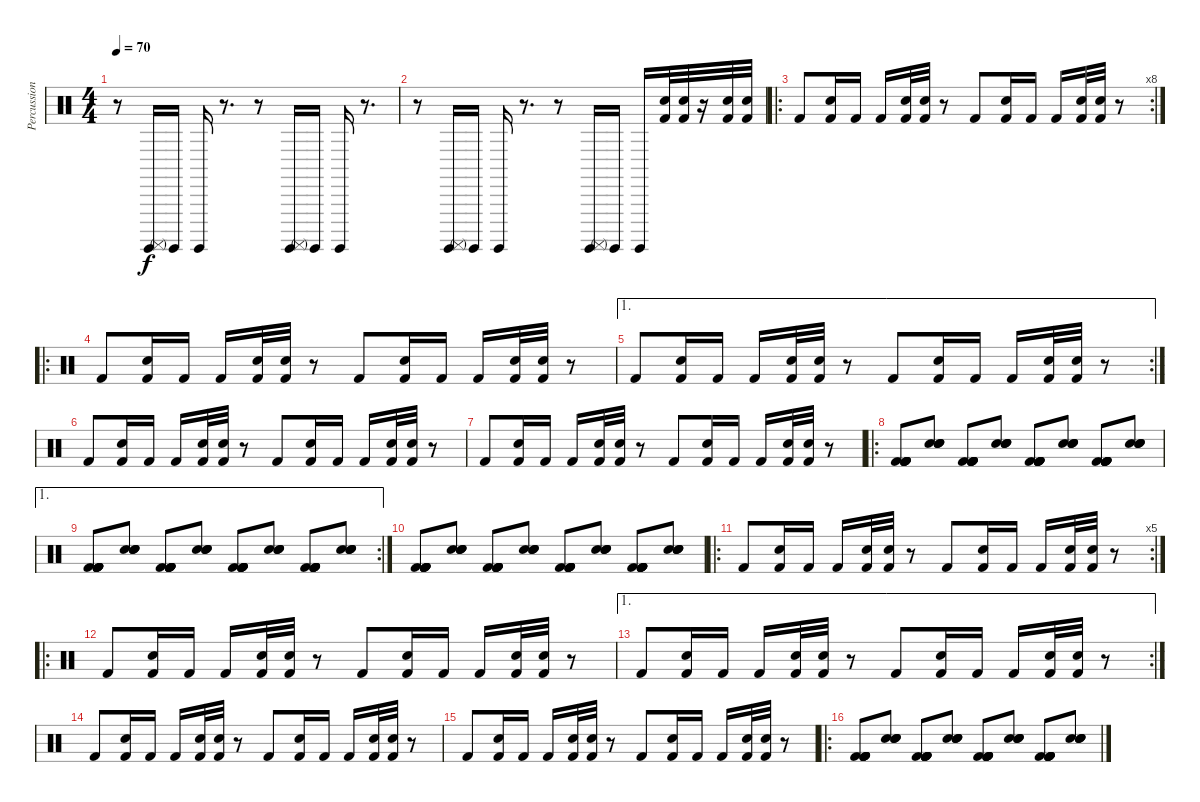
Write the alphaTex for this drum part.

\track ("Percussions" "Percussion") {instrument percussion}
\staff {score}
\articulation defaults
\ts (4 4)
\tempo 70
\clef neutral
\ks c
r.8{dy f} ("Surdo (hit)" "Surdo (mute)").16 "Surdo (hit)".16 "Surdo (hit)".16 r.8{d} r.8 ("Surdo (hit)" "Surdo (mute)").16 "Surdo (hit)".16 "Surdo (hit)".16 r.8{d} |
r.8 ("Surdo (hit)" "Surdo (mute)").16 "Surdo (hit)".16 "Surdo (hit)".16 r.8{d} r.8 ("Surdo (hit)" "Surdo (mute)").16 "Surdo (hit)".16 "Surdo (hit)".16 ("Kick (hit) 2" "Electric Snare (hit)").32 ("Kick (hit) 2" "Electric Snare (hit)").32 r.16 ("Kick (hit) 2" "Electric Snare (hit)").32 ("Kick (hit) 2" "Electric Snare (hit)").32 |
\ro
\rc 8 "Kick (hit) 2".8
("Kick (hit) 2" "Electric Snare (hit)").16 "Kick (hit) 2".16 "Kick (hit) 2".16 ("Kick (hit) 2" "Electric Snare (hit)").32 ("Kick (hit) 2" "Electric Snare (hit)").32 r.8 "Kick (hit) 2".8 ("Kick (hit) 2" "Electric Snare (hit)").16 "Kick (hit) 2".16 "Kick (hit) 2".16 ("Kick (hit) 2" "Electric Snare (hit)").32 ("Kick (hit) 2" "Electric Snare (hit)").32 r.8 |
\ro "Kick (hit) 2".8
("Kick (hit) 2" "Electric Snare (hit)").16 "Kick (hit) 2".16 "Kick (hit) 2".16 ("Kick (hit) 2" "Electric Snare (hit)").32 ("Kick (hit) 2" "Electric Snare (hit)").32 r.8 "Kick (hit) 2".8 ("Kick (hit) 2" "Electric Snare (hit)").16 "Kick (hit) 2".16 "Kick (hit) 2".16 ("Kick (hit) 2" "Electric Snare (hit)").32 ("Kick (hit) 2" "Electric Snare (hit)").32 r.8 |
\ae 1
\rc 2 "Kick (hit) 2".8
("Kick (hit) 2" "Electric Snare (hit)").16 "Kick (hit) 2".16 "Kick (hit) 2".16 ("Kick (hit) 2" "Electric Snare (hit)").32 ("Kick (hit) 2" "Electric Snare (hit)").32 r.8 "Kick (hit) 2".8 ("Kick (hit) 2" "Electric Snare (hit)").16 "Kick (hit) 2".16 "Kick (hit) 2".16 ("Kick (hit) 2" "Electric Snare (hit)").32 ("Kick (hit) 2" "Electric Snare (hit)").32 r.8 |
"Kick (hit) 2".8 ("Kick (hit) 2" "Electric Snare (hit)").16 "Kick (hit) 2".16 "Kick (hit) 2".16 ("Kick (hit) 2" "Electric Snare (hit)").32 ("Kick (hit) 2" "Electric Snare (hit)").32 r.8 "Kick (hit) 2".8 ("Kick (hit) 2" "Electric Snare (hit)").16 "Kick (hit) 2".16 "Kick (hit) 2".16 ("Kick (hit) 2" "Electric Snare (hit)").32 ("Kick (hit) 2" "Electric Snare (hit)").32 r.8 |
"Kick (hit) 2".8 ("Kick (hit) 2" "Electric Snare (hit)").16 "Kick (hit) 2".16 "Kick (hit) 2".16 ("Kick (hit) 2" "Electric Snare (hit)").32 ("Kick (hit) 2" "Electric Snare (hit)").32 r.8 "Kick (hit) 2".8 ("Kick (hit) 2" "Electric Snare (hit)").16 "Kick (hit) 2".16 "Kick (hit) 2".16 ("Kick (hit) 2" "Electric Snare (hit)").32 ("Kick (hit) 2" "Electric Snare (hit)").32 r.8 |
\ro
("Kick (hit) 2" "Kick (hit) 2" "Kick (hit) 2" "Kick (hit) 2" "Kick (hit) 2" "Kick (hit) 2").8 ("Electric Snare (hit)" "Electric Snare (hit)" "Electric Snare (hit)" "Electric Snare (hit)").8 ("Kick (hit) 2" "Kick (hit) 2" "Kick (hit) 2" "Kick (hit) 2" "Kick (hit) 2" "Kick (hit) 2").8 ("Electric Snare (hit)" "Electric Snare (hit)" "Electric Snare (hit)" "Electric Snare (hit)").8 ("Kick (hit) 2" "Kick (hit) 2" "Kick (hit) 2" "Kick (hit) 2" "Kick (hit) 2" "Kick (hit) 2").8 ("Electric Snare (hit)" "Electric Snare (hit)" "Electric Snare (hit)" "Electric Snare (hit)").8 ("Kick (hit) 2" "Kick (hit) 2" "Kick (hit) 2" "Kick (hit) 2" "Kick (hit) 2" "Kick (hit) 2").8 ("Electric Snare (hit)" "Electric Snare (hit)" "Electric Snare (hit)" "Electric Snare (hit)").8 |
\ae 1
\rc 2
("Kick (hit) 2" "Kick (hit) 2" "Kick (hit) 2" "Kick (hit) 2" "Kick (hit) 2" "Kick (hit) 2").8 ("Electric Snare (hit)" "Electric Snare (hit)" "Electric Snare (hit)" "Electric Snare (hit)").8 ("Kick (hit) 2" "Kick (hit) 2" "Kick (hit) 2" "Kick (hit) 2" "Kick (hit) 2" "Kick (hit) 2").8 ("Electric Snare (hit)" "Electric Snare (hit)" "Electric Snare (hit)" "Electric Snare (hit)").8 ("Kick (hit) 2" "Kick (hit) 2" "Kick (hit) 2" "Kick (hit) 2" "Kick (hit) 2" "Kick (hit) 2").8 ("Electric Snare (hit)" "Electric Snare (hit)" "Electric Snare (hit)" "Electric Snare (hit)").8 ("Kick (hit) 2" "Kick (hit) 2" "Kick (hit) 2" "Kick (hit) 2" "Kick (hit) 2" "Kick (hit) 2").8 ("Electric Snare (hit)" "Electric Snare (hit)" "Electric Snare (hit)" "Electric Snare (hit)").8 |
("Kick (hit) 2" "Kick (hit) 2" "Kick (hit) 2" "Kick (hit) 2" "Kick (hit) 2" "Kick (hit) 2").8 ("Electric Snare (hit)" "Electric Snare (hit)" "Electric Snare (hit)" "Electric Snare (hit)").8 ("Kick (hit) 2" "Kick (hit) 2" "Kick (hit) 2" "Kick (hit) 2" "Kick (hit) 2" "Kick (hit) 2").8 ("Electric Snare (hit)" "Electric Snare (hit)" "Electric Snare (hit)" "Electric Snare (hit)").8 ("Kick (hit) 2" "Kick (hit) 2" "Kick (hit) 2" "Kick (hit) 2" "Kick (hit) 2" "Kick (hit) 2").8 ("Electric Snare (hit)" "Electric Snare (hit)" "Electric Snare (hit)" "Electric Snare (hit)").8 ("Kick (hit) 2" "Kick (hit) 2" "Kick (hit) 2" "Kick (hit) 2" "Kick (hit) 2" "Kick (hit) 2").8 ("Electric Snare (hit)" "Electric Snare (hit)" "Electric Snare (hit)" "Electric Snare (hit)").8 |
\ro
\rc 5 "Kick (hit) 2".8
("Kick (hit) 2" "Electric Snare (hit)").16 "Kick (hit) 2".16 "Kick (hit) 2".16 ("Kick (hit) 2" "Electric Snare (hit)").32 ("Kick (hit) 2" "Electric Snare (hit)").32 r.8 "Kick (hit) 2".8 ("Kick (hit) 2" "Electric Snare (hit)").16 "Kick (hit) 2".16 "Kick (hit) 2".16 ("Kick (hit) 2" "Electric Snare (hit)").32 ("Kick (hit) 2" "Electric Snare (hit)").32 r.8 |
\ro "Kick (hit) 2".8
("Kick (hit) 2" "Electric Snare (hit)").16 "Kick (hit) 2".16 "Kick (hit) 2".16 ("Kick (hit) 2" "Electric Snare (hit)").32 ("Kick (hit) 2" "Electric Snare (hit)").32 r.8 "Kick (hit) 2".8 ("Kick (hit) 2" "Electric Snare (hit)").16 "Kick (hit) 2".16 "Kick (hit) 2".16 ("Kick (hit) 2" "Electric Snare (hit)").32 ("Kick (hit) 2" "Electric Snare (hit)").32 r.8 |
\ae 1
\rc 2 "Kick (hit) 2".8
("Kick (hit) 2" "Electric Snare (hit)").16 "Kick (hit) 2".16 "Kick (hit) 2".16 ("Kick (hit) 2" "Electric Snare (hit)").32 ("Kick (hit) 2" "Electric Snare (hit)").32 r.8 "Kick (hit) 2".8 ("Kick (hit) 2" "Electric Snare (hit)").16 "Kick (hit) 2".16 "Kick (hit) 2".16 ("Kick (hit) 2" "Electric Snare (hit)").32 ("Kick (hit) 2" "Electric Snare (hit)").32 r.8 |
"Kick (hit) 2".8 ("Kick (hit) 2" "Electric Snare (hit)").16 "Kick (hit) 2".16 "Kick (hit) 2".16 ("Kick (hit) 2" "Electric Snare (hit)").32 ("Kick (hit) 2" "Electric Snare (hit)").32 r.8 "Kick (hit) 2".8 ("Kick (hit) 2" "Electric Snare (hit)").16 "Kick (hit) 2".16 "Kick (hit) 2".16 ("Kick (hit) 2" "Electric Snare (hit)").32 ("Kick (hit) 2" "Electric Snare (hit)").32 r.8 |
"Kick (hit) 2".8 ("Kick (hit) 2" "Electric Snare (hit)").16 "Kick (hit) 2".16 "Kick (hit) 2".16 ("Kick (hit) 2" "Electric Snare (hit)").32 ("Kick (hit) 2" "Electric Snare (hit)").32 r.8 "Kick (hit) 2".8 ("Kick (hit) 2" "Electric Snare (hit)").16 "Kick (hit) 2".16 "Kick (hit) 2".16 ("Kick (hit) 2" "Electric Snare (hit)").32 ("Kick (hit) 2" "Electric Snare (hit)").32 r.8 |
\ro
("Kick (hit) 2" "Kick (hit) 2" "Kick (hit) 2" "Kick (hit) 2" "Kick (hit) 2" "Kick (hit) 2").8 ("Electric Snare (hit)" "Electric Snare (hit)" "Electric Snare (hit)" "Electric Snare (hit)").8 ("Kick (hit) 2" "Kick (hit) 2" "Kick (hit) 2" "Kick (hit) 2" "Kick (hit) 2" "Kick (hit) 2").8 ("Electric Snare (hit)" "Electric Snare (hit)" "Electric Snare (hit)" "Electric Snare (hit)").8 ("Kick (hit) 2" "Kick (hit) 2" "Kick (hit) 2" "Kick (hit) 2" "Kick (hit) 2" "Kick (hit) 2").8 ("Electric Snare (hit)" "Electric Snare (hit)" "Electric Snare (hit)" "Electric Snare (hit)").8 ("Kick (hit) 2" "Kick (hit) 2" "Kick (hit) 2" "Kick (hit) 2" "Kick (hit) 2" "Kick (hit) 2").8 ("Electric Snare (hit)" "Electric Snare (hit)" "Electric Snare (hit)" "Electric Snare (hit)").8
